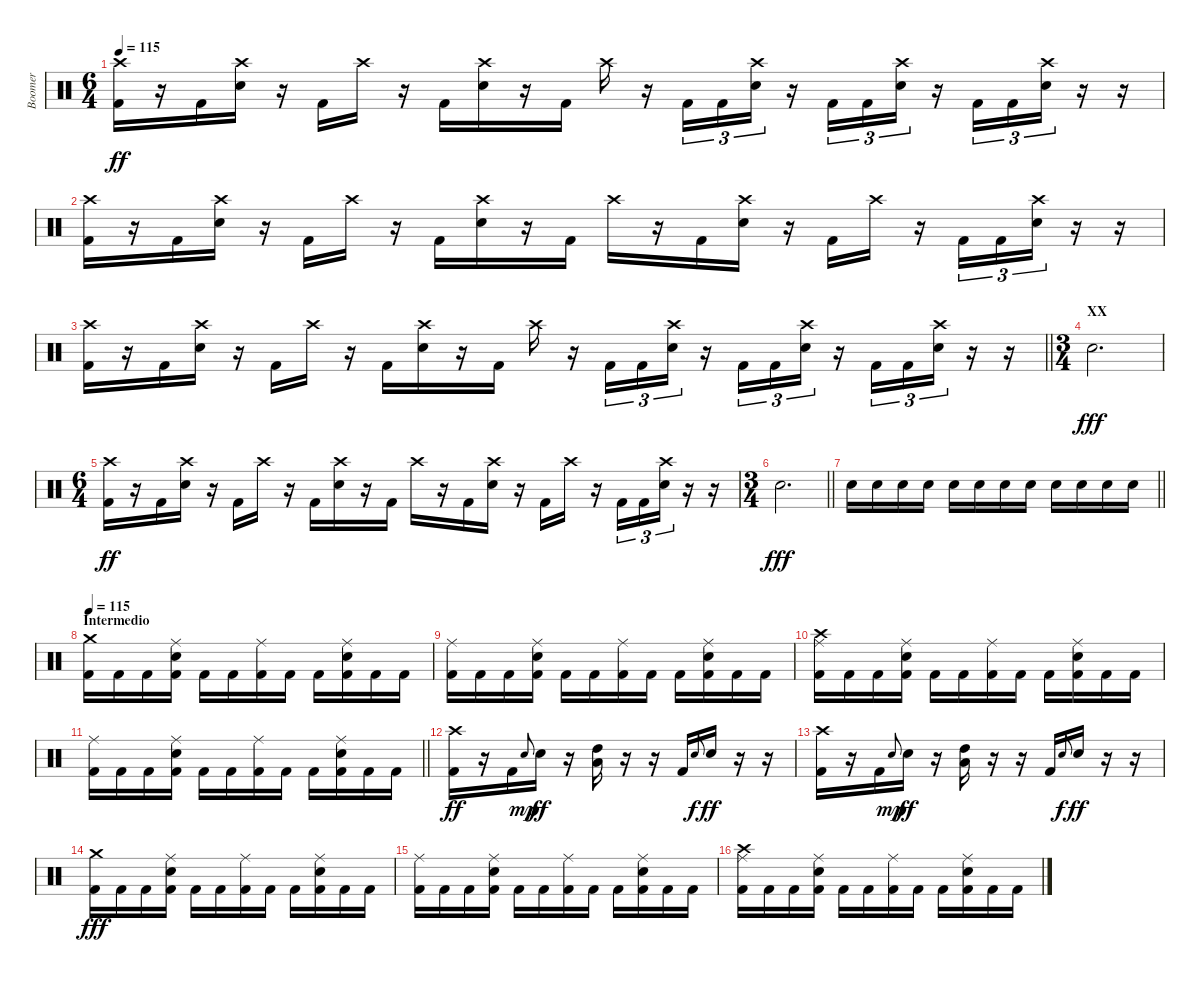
\track ("Boomer" "Boomer") {instrument percussion}
\staff {score}
\articulation defaults
\ts (6 4)
\tempo 115
\clef neutral
\ks c
("Crash high (hit)" "Kick (hit) 2").16{dy ff} r.16 "Kick (hit) 2".16 ("Crash high (hit)" "Electric Snare (hit)").16 r.16 "Kick (hit) 2".16 "Crash high (hit)".16 r.16 "Kick (hit) 2".16 ("Crash high (hit)" "Electric Snare (hit)").16 r.16 "Kick (hit) 2".16 "Crash high (hit)".16 r.16 "Kick (hit) 2".16{tu (3 2)} "Kick (hit) 2".16{tu (3 2)} ("Crash high (hit)" "Electric Snare (hit)").16{tu (3 2)} r.16 "Kick (hit) 2".16{tu (3 2)} "Kick (hit) 2".16{tu (3 2)} ("Crash high (hit)" "Electric Snare (hit)").16{tu (3 2)} r.16 "Kick (hit) 2".16{tu (3 2)} "Kick (hit) 2".16{tu (3 2)} ("Crash high (hit)" "Electric Snare (hit)").16{tu (3 2)} r.16 r.16 |
("Crash high (hit)" "Kick (hit) 2").16 r.16 "Kick (hit) 2".16 ("Crash high (hit)" "Electric Snare (hit)").16 r.16 "Kick (hit) 2".16 "Crash high (hit)".16 r.16 "Kick (hit) 2".16 ("Crash high (hit)" "Electric Snare (hit)").16 r.16 "Kick (hit) 2".16 "Crash high (hit)".16 r.16 "Kick (hit) 2".16 ("Crash high (hit)" "Electric Snare (hit)").16 r.16 "Kick (hit) 2".16 "Crash high (hit)".16 r.16 "Kick (hit) 2".16{tu (3 2)} "Kick (hit) 2".16{tu (3 2)} ("Crash high (hit)" "Electric Snare (hit)").16{tu (3 2)} r.16 r.16 |
\barLineRight lightlight
("Crash high (hit)" "Kick (hit) 2").16 r.16 "Kick (hit) 2".16 ("Crash high (hit)" "Electric Snare (hit)").16 r.16 "Kick (hit) 2".16 "Crash high (hit)".16 r.16 "Kick (hit) 2".16 ("Crash high (hit)" "Electric Snare (hit)").16 r.16 "Kick (hit) 2".16 "Crash high (hit)".16 r.16 "Kick (hit) 2".16{tu (3 2)} "Kick (hit) 2".16{tu (3 2)} ("Crash high (hit)" "Electric Snare (hit)").16{tu (3 2)} r.16 "Kick (hit) 2".16{tu (3 2)} "Kick (hit) 2".16{tu (3 2)} ("Crash high (hit)" "Electric Snare (hit)").16{tu (3 2)} r.16 "Kick (hit) 2".16{tu (3 2)} "Kick (hit) 2".16{tu (3 2)} ("Crash high (hit)" "Electric Snare (hit)").16{tu (3 2)} r.16 r.16 |
\ts (3 4)
\section ("" "XX")
"Electric Snare (hit)".2{d dy fff} |
\ts (6 4)
("Crash high (hit)" "Kick (hit) 2").16{dy ff} r.16 "Kick (hit) 2".16 ("Crash high (hit)" "Electric Snare (hit)").16 r.16 "Kick (hit) 2".16 "Crash high (hit)".16 r.16 "Kick (hit) 2".16 ("Crash high (hit)" "Electric Snare (hit)").16 r.16 "Kick (hit) 2".16 "Crash high (hit)".16 r.16 "Kick (hit) 2".16 ("Crash high (hit)" "Electric Snare (hit)").16 r.16 "Kick (hit) 2".16 "Crash high (hit)".16 r.16 "Kick (hit) 2".16{tu (3 2)} "Kick (hit) 2".16{tu (3 2)} ("Crash high (hit)" "Electric Snare (hit)").16{tu (3 2)} r.16 r.16 |
\ts (3 4)
\barLineRight lightlight "Electric Snare (hit)".2{d dy fff}
|
\barLineRight lightlight "Electric Snare (hit)".16 "Electric Snare (hit)".16 "Electric Snare (hit)".16 "Electric Snare (hit)".16 "Electric Snare (hit)".16 "Electric Snare (hit)".16 "Electric Snare (hit)".16 "Electric Snare (hit)".16 "Electric Snare (hit)".16 "Electric Snare (hit)".16 "Electric Snare (hit)".16 "Electric Snare (hit)".16
|
\section ("" "Intermedio")
\tempo 115
("Crash medium (hit)" "Kick (hit) 2").16 "Kick (hit) 2".16 "Kick (hit) 2".16 ("Ride (middle)" "Electric Snare (hit)" "Kick (hit) 2").16 "Kick (hit) 2".16 "Kick (hit) 2".16 ("Ride (middle)" "Kick (hit) 2").16 "Kick (hit) 2".16 "Kick (hit) 2".16 ("Ride (middle)" "Electric Snare (hit)" "Kick (hit) 2").16 "Kick (hit) 2".16 "Kick (hit) 2".16 |
("Ride (middle)" "Kick (hit) 2").16 "Kick (hit) 2".16 "Kick (hit) 2".16 ("Ride (middle)" "Electric Snare (hit)" "Kick (hit) 2").16 "Kick (hit) 2".16 "Kick (hit) 2".16 ("Ride (middle)" "Kick (hit) 2").16 "Kick (hit) 2".16 "Kick (hit) 2".16 ("Ride (middle)" "Electric Snare (hit)" "Kick (hit) 2").16 "Kick (hit) 2".16 "Kick (hit) 2".16 |
("Ride (middle)" "Crash high (hit)" "Kick (hit) 2").16 "Kick (hit) 2".16 "Kick (hit) 2".16 ("Ride (middle)" "Electric Snare (hit)" "Kick (hit) 2").16 "Kick (hit) 2".16 "Kick (hit) 2".16 ("Ride (middle)" "Kick (hit) 2").16 "Kick (hit) 2".16 "Kick (hit) 2".16 ("Ride (middle)" "Electric Snare (hit)" "Kick (hit) 2").16 "Kick (hit) 2".16 "Kick (hit) 2".16 |
\barLineRight lightlight
("Ride (middle)" "Kick (hit) 2").16 "Kick (hit) 2".16 "Kick (hit) 2".16 ("Ride (middle)" "Electric Snare (hit)" "Kick (hit) 2").16 "Kick (hit) 2".16 "Kick (hit) 2".16 ("Ride (middle)" "Kick (hit) 2").16 "Kick (hit) 2".16 "Kick (hit) 2".16 ("Ride (middle)" "Electric Snare (hit)" "Kick (hit) 2").16 "Kick (hit) 2".16 "Kick (hit) 2".16 |
\section ("" "")
("Crash high (hit)" "Kick (hit) 2").16{dy ff} r.16 "Kick (hit) 2".16 "Electric Snare (hit)".8{gr onbeat dy mp} "Electric Snare (hit)".16{dy ff} r.16 ("High Tom (hit)" "Low Tom (hit)").16 r.16 r.16 "Kick (hit) 2".16 "Electric Snare (hit)".8{gr onbeat dy f} "Electric Snare (hit)".16{dy ff} r.16 r.16 |
("Crash high (hit)" "Kick (hit) 2").16 r.16 "Kick (hit) 2".16 "Electric Snare (hit)".8{gr onbeat dy mp} "Electric Snare (hit)".16{dy ff} r.16 ("High Tom (hit)" "Low Tom (hit)").16 r.16 r.16 "Kick (hit) 2".16 "Electric Snare (hit)".8{gr onbeat dy f} "Electric Snare (hit)".16{dy ff} r.16 r.16 |
("Crash medium (hit)" "Kick (hit) 2").16{dy fff} "Kick (hit) 2".16 "Kick (hit) 2".16 ("Ride (middle)" "Electric Snare (hit)" "Kick (hit) 2").16 "Kick (hit) 2".16 "Kick (hit) 2".16 ("Ride (middle)" "Kick (hit) 2").16 "Kick (hit) 2".16 "Kick (hit) 2".16 ("Ride (middle)" "Electric Snare (hit)" "Kick (hit) 2").16 "Kick (hit) 2".16 "Kick (hit) 2".16 |
("Ride (middle)" "Kick (hit) 2").16 "Kick (hit) 2".16 "Kick (hit) 2".16 ("Ride (middle)" "Electric Snare (hit)" "Kick (hit) 2").16 "Kick (hit) 2".16 "Kick (hit) 2".16 ("Ride (middle)" "Kick (hit) 2").16 "Kick (hit) 2".16 "Kick (hit) 2".16 ("Ride (middle)" "Electric Snare (hit)" "Kick (hit) 2").16 "Kick (hit) 2".16 "Kick (hit) 2".16 |
("Ride (middle)" "Crash high (hit)" "Kick (hit) 2").16 "Kick (hit) 2".16 "Kick (hit) 2".16 ("Ride (middle)" "Electric Snare (hit)" "Kick (hit) 2").16 "Kick (hit) 2".16 "Kick (hit) 2".16 ("Ride (middle)" "Kick (hit) 2").16 "Kick (hit) 2".16 "Kick (hit) 2".16 ("Ride (middle)" "Electric Snare (hit)" "Kick (hit) 2").16 "Kick (hit) 2".16 "Kick (hit) 2".16
